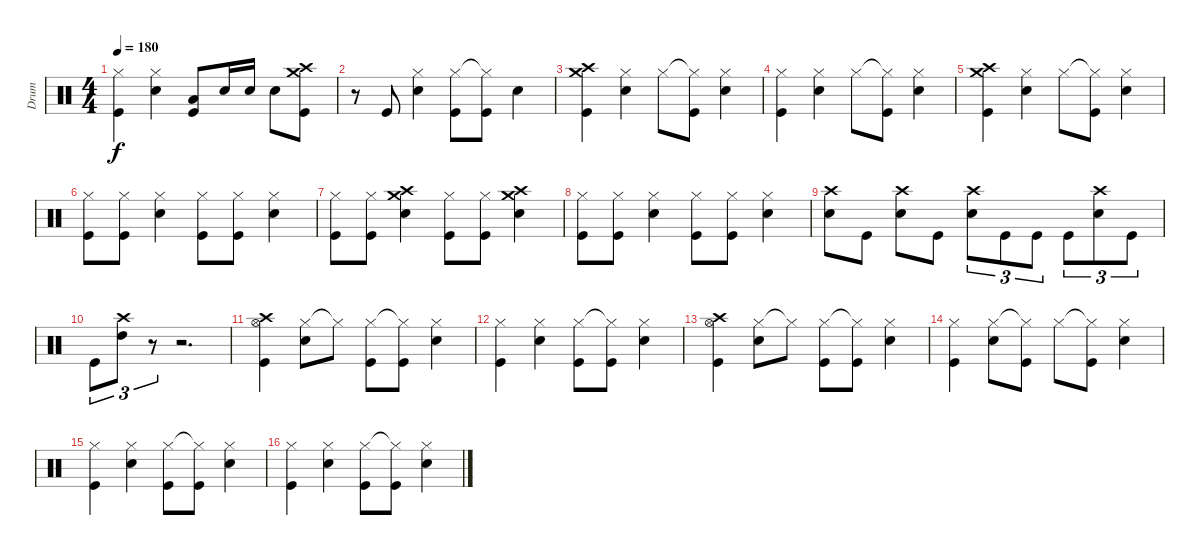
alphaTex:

\track ("Drum" "Drum") {instrument percussion}
\staff {score}
\articulation defaults
\ts (4 4)
\tempo 180
\clef neutral
\ks c
("Hi-Hat (closed)" "Kick (hit)").4{dy f} ("Hi-Hat (closed)" "Snare (hit) 2").4 ("Low Tom (hit)" "Kick (hit)").8 "Snare (hit) 2".16 "Snare (hit) 2".16 "Snare (hit) 2".8 ("Crash high (hit)" "Crash medium (hit)" "Kick (hit)").8 |
r.8 "Kick (hit)".8 ("Hi-Hat (closed)" "Snare (hit) 2").4 ("Hi-Hat (closed)" "Kick (hit)").8 ("Hi-Hat (closed)"{t} "Kick (hit)").8 "Snare (hit) 2".4 |
("Crash high (hit)" "Crash medium (hit)" "Kick (hit)").4 ("Hi-Hat (closed)" "Snare (hit) 2").4 "Hi-Hat (closed)".8 ("Hi-Hat (closed)"{t} "Kick (hit)").8 ("Hi-Hat (closed)" "Snare (hit) 2").4 |
("Hi-Hat (closed)" "Kick (hit)").4 ("Hi-Hat (closed)" "Snare (hit) 2").4 "Hi-Hat (closed)".8 ("Hi-Hat (closed)"{t} "Kick (hit)").8 ("Hi-Hat (closed)" "Snare (hit) 2").4 |
("Crash high (hit)" "Crash medium (hit)" "Kick (hit)").4 ("Hi-Hat (closed)" "Snare (hit) 2").4 "Hi-Hat (closed)".8 ("Hi-Hat (closed)"{t} "Kick (hit)").8 ("Hi-Hat (closed)" "Snare (hit) 2").4 |
("Hi-Hat (closed)" "Kick (hit)").8 ("Hi-Hat (closed)" "Kick (hit)").8 ("Hi-Hat (closed)" "Snare (hit) 2").4 ("Hi-Hat (closed)" "Kick (hit)").8 ("Hi-Hat (closed)" "Kick (hit)").8 ("Hi-Hat (closed)" "Snare (hit) 2").4 |
("Hi-Hat (closed)" "Kick (hit)").8 ("Hi-Hat (closed)" "Kick (hit)").8 ("Crash high (hit)" "Crash medium (hit)" "Snare (hit) 2").4 ("Hi-Hat (closed)" "Kick (hit)").8 ("Hi-Hat (closed)" "Kick (hit)").8 ("Crash high (hit)" "Crash medium (hit)" "Snare (hit) 2").4 |
("Hi-Hat (closed)" "Kick (hit)").8 ("Hi-Hat (closed)" "Kick (hit)").8 ("Hi-Hat (closed)" "Snare (hit) 2").4 ("Hi-Hat (closed)" "Kick (hit)").8 ("Hi-Hat (closed)" "Kick (hit)").8 ("Hi-Hat (closed)" "Snare (hit) 2").4 |
("Crash high (hit)" "Snare (hit) 2").8 "Kick (hit)".8 ("Crash high (hit)" "Snare (hit) 2").8 "Kick (hit)".8 ("Crash high (hit)" "Snare (hit) 2").8{tu (3 2)} "Kick (hit)".8{tu (3 2)} "Kick (hit)".8{tu (3 2)} "Kick (hit)".8{tu (3 2)} ("Crash high (hit)" "Snare (hit) 2").8{tu (3 2)} "Kick (hit)".8{tu (3 2)} |
"Kick (hit)".8{tu (3 2)} ("Crash high (hit)" "High Tom (hit)").8{tu (3 2)} r.8{tu (3 2)} r.2{d} |
("Crash high (hit)" "Hi-Hat (open)" "Kick (hit)").4 ("Hi-Hat (closed)" "Snare (hit) 2").8 "Hi-Hat (closed)"{t}.8 ("Hi-Hat (closed)" "Kick (hit)").8 ("Hi-Hat (closed)"{t} "Kick (hit)").8 ("Hi-Hat (closed)" "Snare (hit) 2").4 |
("Hi-Hat (closed)" "Kick (hit)").4 ("Hi-Hat (closed)" "Snare (hit) 2").4 ("Hi-Hat (closed)" "Kick (hit)").8 ("Hi-Hat (closed)"{t} "Kick (hit)").8 ("Hi-Hat (closed)" "Snare (hit) 2").4 |
("Crash high (hit)" "Hi-Hat (open)" "Kick (hit)").4 ("Hi-Hat (closed)" "Snare (hit) 2").8 "Hi-Hat (closed)"{t}.8 ("Hi-Hat (closed)" "Kick (hit)").8 ("Hi-Hat (closed)"{t} "Kick (hit)").8 ("Hi-Hat (closed)" "Snare (hit) 2").4 |
("Hi-Hat (closed)" "Kick (hit)").4 ("Hi-Hat (closed)" "Snare (hit) 2").8 ("Hi-Hat (closed)"{t} "Kick (hit)").8 "Hi-Hat (closed)".8 ("Hi-Hat (closed)"{t} "Kick (hit)").8 ("Hi-Hat (closed)" "Snare (hit) 2").4 |
("Hi-Hat (closed)" "Kick (hit)").4 ("Hi-Hat (closed)" "Snare (hit) 2").4 ("Hi-Hat (closed)" "Kick (hit)").8 ("Hi-Hat (closed)"{t} "Kick (hit)").8 ("Hi-Hat (closed)" "Snare (hit) 2").4 |
("Hi-Hat (closed)" "Kick (hit)").4 ("Hi-Hat (closed)" "Snare (hit) 2").4 ("Hi-Hat (closed)" "Kick (hit)").8 ("Hi-Hat (closed)"{t} "Kick (hit)").8 ("Hi-Hat (closed)" "Snare (hit) 2").4
